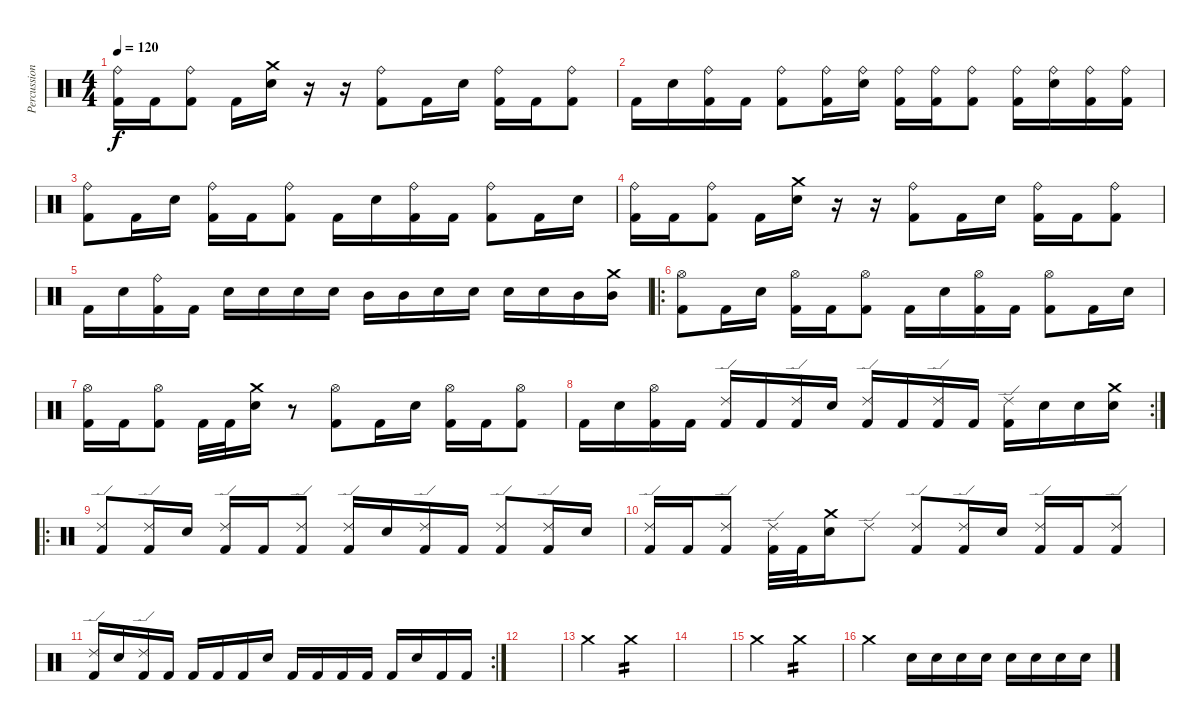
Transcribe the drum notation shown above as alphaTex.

\track ("Percussions" "Percussion") {instrument percussion}
\staff {score}
\articulation defaults
\ts (4 4)
\tempo 120
\clef neutral
\ks c
("Kick (hit) 2" "Ride (bell)").16{dy f} "Kick (hit) 2".16 ("Kick (hit) 2" "Ride (bell)").8 "Kick (hit) 2".16 ("Electric Snare (hit)" "Crash medium (hit)").16 r.16 r.16 ("Kick (hit) 2" "Ride (bell)").8 "Kick (hit) 2".16 "Electric Snare (hit)".16 ("Kick (hit) 2" "Ride (bell)").16 "Kick (hit) 2".16 ("Kick (hit) 2" "Ride (bell)").8 |
"Kick (hit) 2".16 "Electric Snare (hit)".16 ("Kick (hit) 2" "Ride (bell)").16 "Kick (hit) 2".16 ("Kick (hit) 2" "Ride (bell)").8 ("Kick (hit) 2" "Ride (bell)").16 ("Electric Snare (hit)" "Ride (bell)").16 ("Kick (hit) 2" "Ride (bell)").16 ("Kick (hit) 2" "Ride (bell)").16 ("Kick (hit) 2" "Ride (bell)").8 ("Kick (hit) 2" "Ride (bell)").16 ("Electric Snare (hit)" "Ride (bell)").16 ("Kick (hit) 2" "Ride (bell)").16 ("Kick (hit) 2" "Ride (bell)").16 |
("Kick (hit) 2" "Ride (bell)").8 "Kick (hit) 2".16 "Electric Snare (hit)".16 ("Kick (hit) 2" "Ride (bell)").16 "Kick (hit) 2".16 ("Kick (hit) 2" "Ride (bell)").8 "Kick (hit) 2".16 "Electric Snare (hit)".16 ("Kick (hit) 2" "Ride (bell)").16 "Kick (hit) 2".16 ("Kick (hit) 2" "Ride (bell)").8 "Kick (hit) 2".16 "Electric Snare (hit)".16 |
("Kick (hit) 2" "Ride (bell)").16 "Kick (hit) 2".16 ("Kick (hit) 2" "Ride (bell)").8 "Kick (hit) 2".16 ("Electric Snare (hit)" "Crash medium (hit)").16 r.16 r.16 ("Kick (hit) 2" "Ride (bell)").8 "Kick (hit) 2".16 "Electric Snare (hit)".16 ("Kick (hit) 2" "Ride (bell)").16 "Kick (hit) 2".16 ("Kick (hit) 2" "Ride (bell)").8 |
"Kick (hit) 2".16 "Electric Snare (hit)".16 ("Kick (hit) 2" "Ride (bell)").16 "Kick (hit) 2".16 "Electric Snare (hit)".16 "Snare (hit) 2".16 "Snare (hit) 2".16 "Electric Snare (hit)".16 "Mid Tom (hit)".16 "Mid Tom (hit)".16 "Electric Snare (hit)".16 "Snare (hit) 2".16 "Snare (hit) 2".16 "Electric Snare (hit)".16 "Mid Tom (hit)".16 ("Mid Tom (hit)" "Crash medium (hit)").16 |
\ro
("Kick (hit) 2" "Hi-Hat (open)").8 "Kick (hit) 2".16 "Electric Snare (hit)".16 ("Kick (hit) 2" "Hi-Hat (open)").16 "Kick (hit) 2".16 ("Kick (hit) 2" "Hi-Hat (open)").8 "Kick (hit) 2".16 "Electric Snare (hit)".16 ("Kick (hit) 2" "Hi-Hat (open)").16 "Kick (hit) 2".16 ("Kick (hit) 2" "Hi-Hat (open)").8 "Kick (hit) 2".16 "Electric Snare (hit)".16 |
("Kick (hit) 2" "Hi-Hat (open)").16 "Kick (hit) 2".16 ("Kick (hit) 2" "Hi-Hat (open)").8 "Kick (hit) 2".32 "Kick (hit) 2".32 ("Electric Snare (hit)" "Crash medium (hit)").16 r.8 ("Kick (hit) 2" "Hi-Hat (open)").8 "Kick (hit) 2".16 "Electric Snare (hit)".16 ("Kick (hit) 2" "Hi-Hat (open)").16 "Kick (hit) 2".16 ("Kick (hit) 2" "Hi-Hat (open)").8 |
\rc 2 "Kick (hit) 2".16 "Electric Snare (hit)".16
("Kick (hit) 2" "Hi-Hat (open)").16 "Kick (hit) 2".16 ("Kick (hit) 2" "Ride (edge) 2").16 "Kick (hit) 2".16 ("Kick (hit) 2" "Ride (edge) 2").16 "Electric Snare (hit)".16 ("Kick (hit) 2" "Ride (edge) 2").16 "Kick (hit) 2".16 ("Kick (hit) 2" "Ride (edge) 2").16 "Kick (hit) 2".16 ("Kick (hit) 2" "Ride (edge) 2").16 "Electric Snare (hit)".16 "Snare (hit) 2".16 ("Snare (hit) 2" "Crash medium (hit)").16 |
\ro
("Kick (hit) 2" "Ride (edge) 2").8 ("Kick (hit) 2" "Ride (edge) 2").16 "Electric Snare (hit)".16 ("Kick (hit) 2" "Ride (edge) 2").16 "Kick (hit) 2".16 ("Kick (hit) 2" "Ride (edge) 2").8 ("Kick (hit) 2" "Ride (edge) 2").16 "Electric Snare (hit)".16 ("Kick (hit) 2" "Ride (edge) 2").16 "Kick (hit) 2".16 ("Kick (hit) 2" "Ride (edge) 2").8 ("Kick (hit) 2" "Ride (edge) 2").16 "Electric Snare (hit)".16 |
("Kick (hit) 2" "Ride (edge) 2").16 "Kick (hit) 2".16 ("Kick (hit) 2" "Ride (edge) 2").8 ("Kick (hit) 2" "Ride (edge) 2").32 "Kick (hit) 2".32 ("Electric Snare (hit)" "Crash medium (hit)").16 "Ride (edge) 2".8 ("Kick (hit) 2" "Ride (edge) 2").8 ("Kick (hit) 2" "Ride (edge) 2").16 "Electric Snare (hit)".16 ("Kick (hit) 2" "Ride (edge) 2").16 "Kick (hit) 2".16 ("Kick (hit) 2" "Ride (edge) 2").8 |
\rc 2
("Kick (hit) 2" "Ride (edge) 2").16 "Electric Snare (hit)".16 ("Kick (hit) 2" "Ride (edge) 2").16 "Kick (hit) 2".16 "Kick (hit) 2".16 "Kick (hit) 2".16 "Kick (hit) 2".16 "Electric Snare (hit)".16 "Kick (hit) 2".16 "Kick (hit) 2".16 "Kick (hit) 2".16 "Kick (hit) 2".16 "Kick (hit) 2".16 "Electric Snare (hit)".16 "Kick (hit) 2".16 "Kick (hit) 2".16 |
|
"Crash medium (hit)".2 "Crash medium (hit)".2{tp 2} |
|
"Crash medium (hit)".2 "Crash medium (hit)".2{tp 2} |
"Crash medium (hit)".2 "Electric Snare (hit)".16{volume 8} "Electric Snare (hit)".16{volume 9} "Snare (hit) 2".16{volume 10} "Snare (hit) 2".16{volume 11} "Electric Snare (hit)".16{volume 12} "Electric Snare (hit)".16{volume 13} "Snare (hit) 2".16{volume 14} "Snare (hit) 2".16{volume 15}
